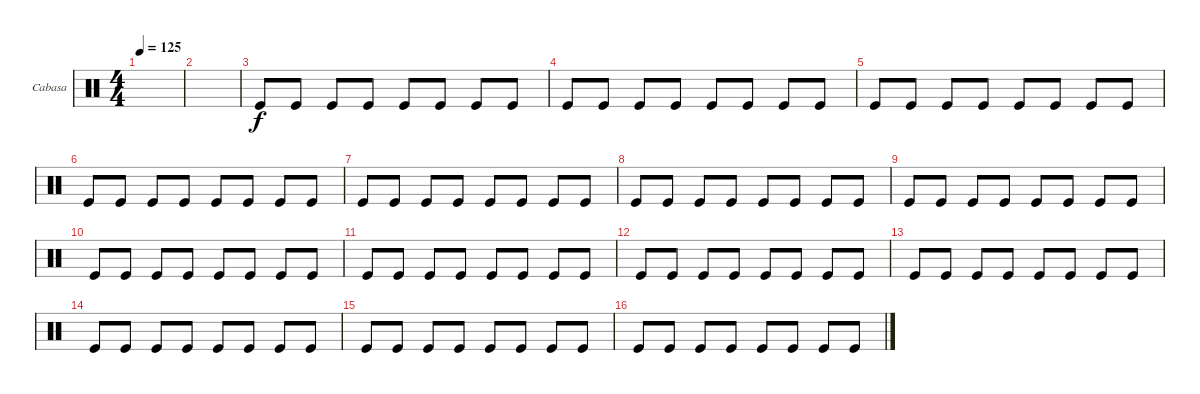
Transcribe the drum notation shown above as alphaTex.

\defaultSystemsLayout 4
\bracketExtendMode groupsimilarinstruments
\firstSystemTrackNameOrientation horizontal
\otherSystemsTrackNameOrientation horizontal
\track ("Cabasa" "Cabasa") {instrument percussion}
\staff {score}
\articulation defaults
\ts (4 4)
\tempo 125
\clef neutral
\scale
0.472222
\ks c
|
\scale
0.263889 |
\scale
0.263889 "Kick (hit)".8 "Kick (hit)".8 "Kick (hit)".8 "Kick (hit)".8 "Kick (hit)".8 "Kick (hit)".8 "Kick (hit)".8 "Kick (hit)".8 |
\scale
0.333333 "Kick (hit)".8 "Kick (hit)".8 "Kick (hit)".8 "Kick (hit)".8 "Kick (hit)".8 "Kick (hit)".8 "Kick (hit)".8 "Kick (hit)".8 |
\scale
0.333333 "Kick (hit)".8 "Kick (hit)".8 "Kick (hit)".8 "Kick (hit)".8 "Kick (hit)".8 "Kick (hit)".8 "Kick (hit)".8 "Kick (hit)".8 |
\scale
0.333333 "Kick (hit)".8 "Kick (hit)".8 "Kick (hit)".8 "Kick (hit)".8 "Kick (hit)".8 "Kick (hit)".8 "Kick (hit)".8 "Kick (hit)".8 |
\scale
0.333333 "Kick (hit)".8 "Kick (hit)".8 "Kick (hit)".8 "Kick (hit)".8 "Kick (hit)".8 "Kick (hit)".8 "Kick (hit)".8 "Kick (hit)".8 |
\scale
0.333333 "Kick (hit)".8 "Kick (hit)".8 "Kick (hit)".8 "Kick (hit)".8 "Kick (hit)".8 "Kick (hit)".8 "Kick (hit)".8 "Kick (hit)".8 |
\scale
0.333333 "Kick (hit)".8 "Kick (hit)".8 "Kick (hit)".8 "Kick (hit)".8 "Kick (hit)".8 "Kick (hit)".8 "Kick (hit)".8 "Kick (hit)".8 |
\scale
0.333333 "Kick (hit)".8 "Kick (hit)".8 "Kick (hit)".8 "Kick (hit)".8 "Kick (hit)".8 "Kick (hit)".8 "Kick (hit)".8 "Kick (hit)".8 |
\scale
0.333333 "Kick (hit)".8 "Kick (hit)".8 "Kick (hit)".8 "Kick (hit)".8 "Kick (hit)".8 "Kick (hit)".8 "Kick (hit)".8 "Kick (hit)".8 |
\scale
0.333333 "Kick (hit)".8 "Kick (hit)".8 "Kick (hit)".8 "Kick (hit)".8 "Kick (hit)".8 "Kick (hit)".8 "Kick (hit)".8 "Kick (hit)".8 |
\scale
0.333333 "Kick (hit)".8 "Kick (hit)".8 "Kick (hit)".8 "Kick (hit)".8 "Kick (hit)".8 "Kick (hit)".8 "Kick (hit)".8 "Kick (hit)".8 |
\scale
0.333333 "Kick (hit)".8 "Kick (hit)".8 "Kick (hit)".8 "Kick (hit)".8 "Kick (hit)".8 "Kick (hit)".8 "Kick (hit)".8 "Kick (hit)".8 |
\scale
0.333333 "Kick (hit)".8 "Kick (hit)".8 "Kick (hit)".8 "Kick (hit)".8 "Kick (hit)".8 "Kick (hit)".8 "Kick (hit)".8 "Kick (hit)".8 |
\scale
0.333333 "Kick (hit)".8 "Kick (hit)".8 "Kick (hit)".8 "Kick (hit)".8 "Kick (hit)".8 "Kick (hit)".8 "Kick (hit)".8 "Kick (hit)".8
